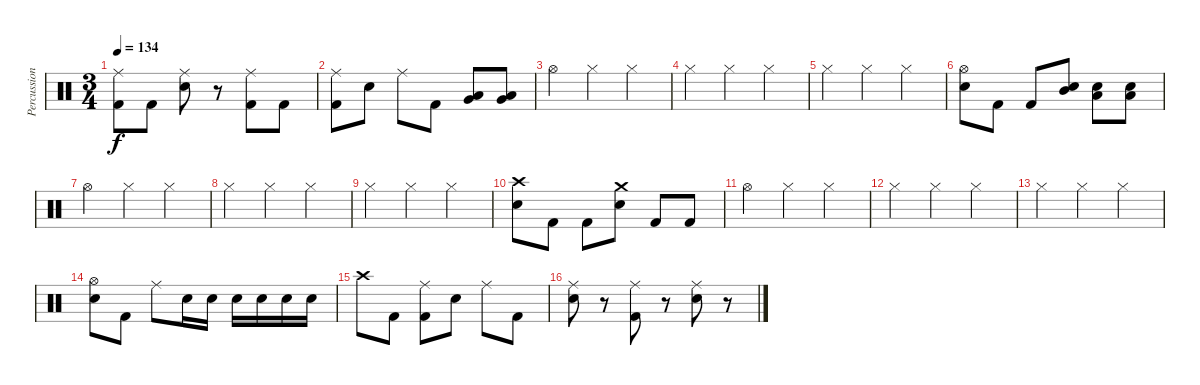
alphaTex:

\track ("Percussion" "Percussion") {instrument percussion}
\staff {score}
\articulation defaults
\ts (3 4)
\tempo 134
\clef neutral
\ks c
("Ride (middle)" "Kick (hit) 2").8{dy f} "Kick (hit) 2".8 ("Ride (middle)" "Snare (hit) 2").8 r.8 ("Ride (middle)" "Kick (hit) 2").8 "Kick (hit) 2".8 |
("Ride (middle)" "Kick (hit) 2").8 "Snare (hit) 2".8 "Ride (middle)".8 "Kick (hit) 2".8 ("Very Low Tom (hit)" "Low Tom (hit)").8 ("Very Low Tom (hit)" "Low Tom (hit)").8 |
"Hi-Hat (open)".4 "Hi-Hat (closed)".4 "Hi-Hat (closed)".4 |
"Hi-Hat (closed)".4 "Hi-Hat (closed)".4 "Hi-Hat (closed)".4 |
"Hi-Hat (closed)".4 "Hi-Hat (closed)".4 "Hi-Hat (closed)".4 |
("Hi-Hat (open)" "Snare (hit) 2").8 "Kick (hit) 2".8 "Kick (hit) 2".8 ("Mid Tom (hit)" "Snare (hit) 2").8 ("Low Tom (hit)" "Snare (hit) 2").8 ("Low Tom (hit)" "Snare (hit) 2").8 |
"Hi-Hat (open)".4 "Hi-Hat (closed)".4 "Hi-Hat (closed)".4 |
"Hi-Hat (closed)".4 "Hi-Hat (closed)".4 "Hi-Hat (closed)".4 |
"Hi-Hat (closed)".4 "Hi-Hat (closed)".4 "Hi-Hat (closed)".4 |
("Crash high (hit)" "Snare (hit) 2").8 "Kick (hit) 2".8 "Kick (hit) 2".8 ("Crash medium (hit)" "Snare (hit) 2").8 "Kick (hit) 2".8 "Kick (hit) 2".8 |
"Hi-Hat (open)".4 "Hi-Hat (closed)".4 "Hi-Hat (closed)".4 |
"Hi-Hat (closed)".4 "Hi-Hat (closed)".4 "Hi-Hat (closed)".4 |
"Hi-Hat (closed)".4 "Hi-Hat (closed)".4 "Hi-Hat (closed)".4 |
("Hi-Hat (open)" "Snare (hit) 2").8 "Kick (hit) 2".8 "Ride (middle)".8 "Snare (hit) 2".16 "Snare (hit) 2".16 "Snare (hit) 2".16 "Snare (hit) 2".16 "Snare (hit) 2".16 "Snare (hit) 2".16 |
"Crash high (hit)".8 "Kick (hit) 2".8 ("Ride (middle)" "Kick (hit) 2").8 "Snare (hit) 2".8 "Ride (middle)".8 "Kick (hit) 2".8 |
("Ride (middle)" "Snare (hit) 2").8 r.8 ("Ride (middle)" "Kick (hit) 2").8 r.8 ("Ride (middle)" "Snare (hit) 2").8 r.8
